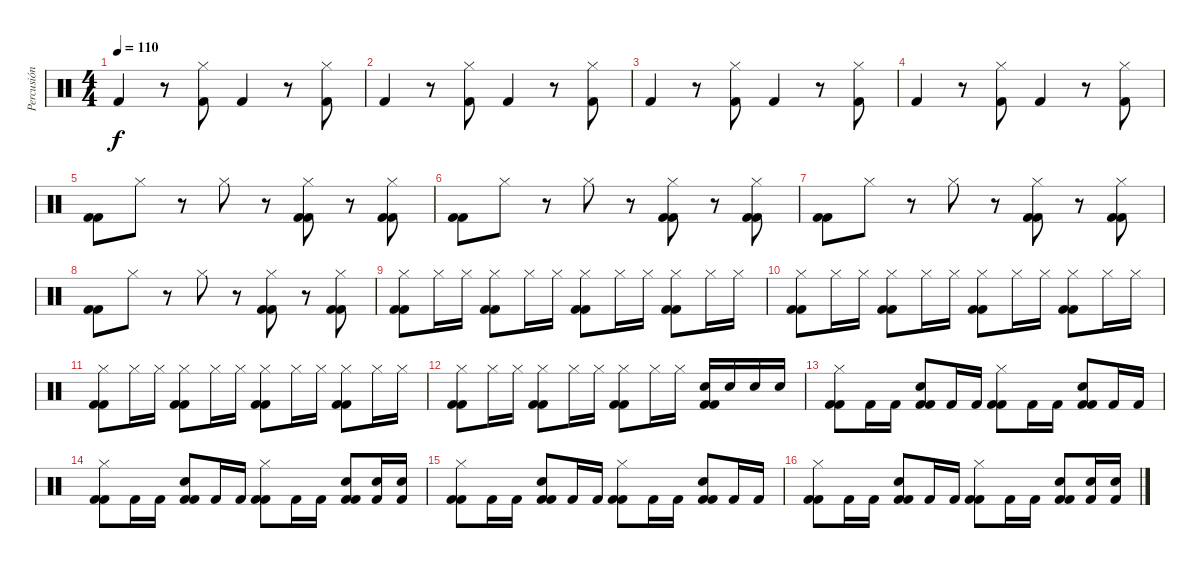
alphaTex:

\track ("Percusión" "Percusión") {instrument percussion}
\staff {score}
\articulation defaults
\ts (4 4)
\tempo 110
\clef neutral
\ks c "Kick (hit) 2".4{dy f}
r.8 ("Hi-Hat (closed)" "Kick (hit) 2").8 "Kick (hit) 2".4 r.8 ("Hi-Hat (closed)" "Kick (hit) 2").8 |
"Kick (hit) 2".4 r.8 ("Hi-Hat (closed)" "Kick (hit) 2").8 "Kick (hit) 2".4 r.8 ("Hi-Hat (closed)" "Kick (hit) 2").8 |
"Kick (hit) 2".4 r.8 ("Hi-Hat (closed)" "Kick (hit) 2").8 "Kick (hit) 2".4 r.8 ("Hi-Hat (closed)" "Kick (hit) 2").8 |
"Kick (hit) 2".4 r.8 ("Hi-Hat (closed)" "Kick (hit) 2").8 "Kick (hit) 2".4 r.8 ("Hi-Hat (closed)" "Kick (hit) 2").8 |
("Kick (hit) 2" "Kick (hit) 2").8 "Hi-Hat (closed)".8 r.8 "Hi-Hat (closed)".8 r.8 ("Hi-Hat (closed)" "Kick (hit) 2" "Kick (hit) 2").8 r.8 ("Hi-Hat (closed)" "Kick (hit) 2" "Kick (hit) 2").8 |
("Kick (hit) 2" "Kick (hit) 2").8 "Hi-Hat (closed)".8 r.8 "Hi-Hat (closed)".8 r.8 ("Hi-Hat (closed)" "Kick (hit) 2" "Kick (hit) 2").8 r.8 ("Hi-Hat (closed)" "Kick (hit) 2" "Kick (hit) 2").8 |
("Kick (hit) 2" "Kick (hit) 2").8 "Hi-Hat (closed)".8 r.8 "Hi-Hat (closed)".8 r.8 ("Hi-Hat (closed)" "Kick (hit) 2" "Kick (hit) 2").8 r.8 ("Hi-Hat (closed)" "Kick (hit) 2" "Kick (hit) 2").8 |
("Kick (hit) 2" "Kick (hit) 2").8 "Hi-Hat (closed)".8 r.8 "Hi-Hat (closed)".8 r.8 ("Hi-Hat (closed)" "Kick (hit) 2" "Kick (hit) 2").8 r.8 ("Hi-Hat (closed)" "Kick (hit) 2" "Kick (hit) 2").8 |
("Hi-Hat (closed)" "Kick (hit) 2" "Kick (hit) 2").8 "Hi-Hat (closed)".16 "Hi-Hat (closed)".16 ("Hi-Hat (closed)" "Kick (hit) 2" "Kick (hit) 2").8 "Hi-Hat (closed)".16 "Hi-Hat (closed)".16 ("Hi-Hat (closed)" "Kick (hit) 2" "Kick (hit) 2").8 "Hi-Hat (closed)".16 "Hi-Hat (closed)".16 ("Hi-Hat (closed)" "Kick (hit) 2" "Kick (hit) 2").8 "Hi-Hat (closed)".16 "Hi-Hat (closed)".16 |
("Hi-Hat (closed)" "Kick (hit) 2" "Kick (hit) 2").8 "Hi-Hat (closed)".16 "Hi-Hat (closed)".16 ("Hi-Hat (closed)" "Kick (hit) 2" "Kick (hit) 2").8 "Hi-Hat (closed)".16 "Hi-Hat (closed)".16 ("Hi-Hat (closed)" "Kick (hit) 2" "Kick (hit) 2").8 "Hi-Hat (closed)".16 "Hi-Hat (closed)".16 ("Hi-Hat (closed)" "Kick (hit) 2" "Kick (hit) 2").8 "Hi-Hat (closed)".16 "Hi-Hat (closed)".16 |
("Hi-Hat (closed)" "Kick (hit) 2" "Kick (hit) 2").8 "Hi-Hat (closed)".16 "Hi-Hat (closed)".16 ("Hi-Hat (closed)" "Kick (hit) 2" "Kick (hit) 2").8 "Hi-Hat (closed)".16 "Hi-Hat (closed)".16 ("Hi-Hat (closed)" "Kick (hit) 2" "Kick (hit) 2").8 "Hi-Hat (closed)".16 "Hi-Hat (closed)".16 ("Hi-Hat (closed)" "Kick (hit) 2" "Kick (hit) 2").8 "Hi-Hat (closed)".16 "Hi-Hat (closed)".16 |
("Hi-Hat (closed)" "Kick (hit) 2" "Kick (hit) 2").8 "Hi-Hat (closed)".16 "Hi-Hat (closed)".16 ("Hi-Hat (closed)" "Kick (hit) 2" "Kick (hit) 2").8 "Hi-Hat (closed)".16 "Hi-Hat (closed)".16 ("Hi-Hat (closed)" "Kick (hit) 2" "Kick (hit) 2").8 "Hi-Hat (closed)".16 "Hi-Hat (closed)".16 ("Snare (hit) 2" "Kick (hit) 2" "Kick (hit) 2").16 "Snare (hit) 2".16 "Snare (hit) 2".16 "Snare (hit) 2".16 |
("Hi-Hat (closed)" "Kick (hit) 2" "Kick (hit) 2").8 "Kick (hit) 2".16 "Kick (hit) 2".16 ("Snare (hit) 2" "Kick (hit) 2" "Kick (hit) 2").8 "Kick (hit) 2".16 "Kick (hit) 2".16 ("Hi-Hat (closed)" "Kick (hit) 2" "Kick (hit) 2").8 "Kick (hit) 2".16 "Kick (hit) 2".16 ("Snare (hit) 2" "Kick (hit) 2" "Kick (hit) 2").8 "Kick (hit) 2".16 "Kick (hit) 2".16 |
("Hi-Hat (closed)" "Kick (hit) 2" "Kick (hit) 2").8 "Kick (hit) 2".16 "Kick (hit) 2".16 ("Snare (hit) 2" "Kick (hit) 2" "Kick (hit) 2").8 "Kick (hit) 2".16 "Kick (hit) 2".16 ("Hi-Hat (closed)" "Kick (hit) 2" "Kick (hit) 2").8 "Kick (hit) 2".16 "Kick (hit) 2".16 ("Snare (hit) 2" "Kick (hit) 2" "Kick (hit) 2").8 ("Snare (hit) 2" "Kick (hit) 2").16 ("Snare (hit) 2" "Kick (hit) 2").16 |
("Hi-Hat (closed)" "Kick (hit) 2" "Kick (hit) 2").8 "Kick (hit) 2".16 "Kick (hit) 2".16 ("Snare (hit) 2" "Kick (hit) 2" "Kick (hit) 2").8 "Kick (hit) 2".16 "Kick (hit) 2".16 ("Hi-Hat (closed)" "Kick (hit) 2" "Kick (hit) 2").8 "Kick (hit) 2".16 "Kick (hit) 2".16 ("Snare (hit) 2" "Kick (hit) 2" "Kick (hit) 2").8 "Kick (hit) 2".16 "Kick (hit) 2".16 |
("Hi-Hat (closed)" "Kick (hit) 2" "Kick (hit) 2").8 "Kick (hit) 2".16 "Kick (hit) 2".16 ("Snare (hit) 2" "Kick (hit) 2" "Kick (hit) 2").8 "Kick (hit) 2".16 "Kick (hit) 2".16 ("Hi-Hat (closed)" "Kick (hit) 2" "Kick (hit) 2").8 "Kick (hit) 2".16 "Kick (hit) 2".16 ("Snare (hit) 2" "Kick (hit) 2" "Kick (hit) 2").8 ("Snare (hit) 2" "Kick (hit) 2").16 ("Snare (hit) 2" "Kick (hit) 2").16
